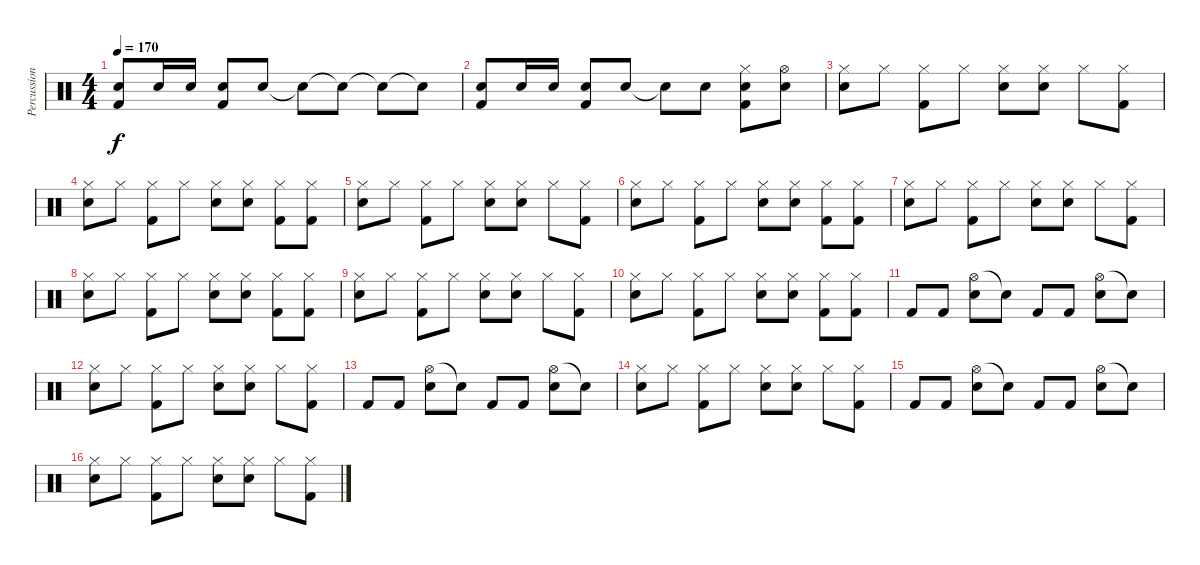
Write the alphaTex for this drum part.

\track ("Percussions" "Percussion") {instrument percussion}
\staff {score}
\articulation defaults
\ts (4 4)
\tempo 170
\clef neutral
\ks c
("Snare (hit) 2" "Kick (hit) 2").8{dy f} "Snare (hit) 2".16 "Snare (hit) 2".16 ("Snare (hit) 2" "Kick (hit) 2").8 "Snare (hit) 2".8 "Snare (hit) 2"{t}.8 "Snare (hit)"{t}.8 "Snare (hit)"{t}.8 "Snare (hit) 2"{t}.8 |
("Snare (hit) 2" "Kick (hit) 2").8 "Snare (hit) 2".16 "Snare (hit) 2".16 ("Snare (hit) 2" "Kick (hit) 2").8 "Snare (hit) 2".8 "Snare (hit) 2"{t}.8 "Snare (hit) 2".8 ("Hi-Hat (closed)" "Snare (hit) 2" "Kick (hit) 2").8 ("Hi-Hat (open)" "Snare (hit) 2").8 |
("Hi-Hat (closed)" "Snare (hit) 2").8 "Hi-Hat (closed)".8 ("Hi-Hat (closed)" "Kick (hit) 2").8 "Hi-Hat (closed)".8 ("Hi-Hat (closed)" "Snare (hit) 2").8 ("Hi-Hat (closed)" "Snare (hit) 2").8 "Hi-Hat (closed)".8 ("Hi-Hat (closed)" "Kick (hit) 2").8 |
("Hi-Hat (closed)" "Snare (hit) 2").8 "Hi-Hat (closed)".8 ("Hi-Hat (closed)" "Kick (hit) 2").8 "Hi-Hat (closed)".8 ("Hi-Hat (closed)" "Snare (hit) 2").8 ("Hi-Hat (closed)" "Snare (hit) 2").8 ("Hi-Hat (closed)" "Kick (hit) 2").8 ("Hi-Hat (closed)" "Kick (hit) 2").8 |
("Hi-Hat (closed)" "Snare (hit) 2").8 "Hi-Hat (closed)".8 ("Hi-Hat (closed)" "Kick (hit) 2").8 "Hi-Hat (closed)".8 ("Hi-Hat (closed)" "Snare (hit) 2").8 ("Hi-Hat (closed)" "Snare (hit) 2").8 "Hi-Hat (closed)".8 ("Hi-Hat (closed)" "Kick (hit) 2").8 |
("Hi-Hat (closed)" "Snare (hit) 2").8 "Hi-Hat (closed)".8 ("Hi-Hat (closed)" "Kick (hit) 2").8 "Hi-Hat (closed)".8 ("Hi-Hat (closed)" "Snare (hit) 2").8 ("Hi-Hat (closed)" "Snare (hit) 2").8 ("Hi-Hat (closed)" "Kick (hit) 2").8 ("Hi-Hat (closed)" "Kick (hit) 2").8 |
("Hi-Hat (closed)" "Snare (hit) 2").8 "Hi-Hat (closed)".8 ("Hi-Hat (closed)" "Kick (hit) 2").8 "Hi-Hat (closed)".8 ("Hi-Hat (closed)" "Snare (hit) 2").8 ("Hi-Hat (closed)" "Snare (hit) 2").8 "Hi-Hat (closed)".8 ("Hi-Hat (closed)" "Kick (hit) 2").8 |
("Hi-Hat (closed)" "Snare (hit) 2").8 "Hi-Hat (closed)".8 ("Hi-Hat (closed)" "Kick (hit) 2").8 "Hi-Hat (closed)".8 ("Hi-Hat (closed)" "Snare (hit) 2").8 ("Hi-Hat (closed)" "Snare (hit) 2").8 ("Hi-Hat (closed)" "Kick (hit) 2").8 ("Hi-Hat (closed)" "Kick (hit) 2").8 |
("Hi-Hat (closed)" "Snare (hit) 2").8 "Hi-Hat (closed)".8 ("Hi-Hat (closed)" "Kick (hit) 2").8 "Hi-Hat (closed)".8 ("Hi-Hat (closed)" "Snare (hit) 2").8 ("Hi-Hat (closed)" "Snare (hit) 2").8 "Hi-Hat (closed)".8 ("Hi-Hat (closed)" "Kick (hit) 2").8 |
("Hi-Hat (closed)" "Snare (hit) 2").8 "Hi-Hat (closed)".8 ("Hi-Hat (closed)" "Kick (hit) 2").8 "Hi-Hat (closed)".8 ("Hi-Hat (closed)" "Snare (hit) 2").8 ("Hi-Hat (closed)" "Snare (hit) 2").8 ("Hi-Hat (closed)" "Kick (hit) 2").8 ("Hi-Hat (closed)" "Kick (hit) 2").8 |
"Kick (hit) 2".8 "Kick (hit) 2".8 ("Hi-Hat (open)" "Snare (hit) 2").8 "Snare (hit)"{t}.8 "Kick (hit) 2".8 "Kick (hit) 2".8 ("Hi-Hat (open)" "Snare (hit) 2").8 "Snare (hit)"{t}.8 |
("Hi-Hat (closed)" "Snare (hit) 2").8 "Hi-Hat (closed)".8 ("Hi-Hat (closed)" "Kick (hit) 2").8 "Hi-Hat (closed)".8 ("Hi-Hat (closed)" "Snare (hit) 2").8 ("Hi-Hat (closed)" "Snare (hit) 2").8 "Hi-Hat (closed)".8 ("Hi-Hat (closed)" "Kick (hit) 2").8 |
"Kick (hit) 2".8 "Kick (hit) 2".8 ("Hi-Hat (open)" "Snare (hit) 2").8 "Snare (hit)"{t}.8 "Kick (hit) 2".8 "Kick (hit) 2".8 ("Hi-Hat (open)" "Snare (hit) 2").8 "Snare (hit)"{t}.8 |
("Hi-Hat (closed)" "Snare (hit) 2").8 "Hi-Hat (closed)".8 ("Hi-Hat (closed)" "Kick (hit) 2").8 "Hi-Hat (closed)".8 ("Hi-Hat (closed)" "Snare (hit) 2").8 ("Hi-Hat (closed)" "Snare (hit) 2").8 "Hi-Hat (closed)".8 ("Hi-Hat (closed)" "Kick (hit) 2").8 |
"Kick (hit) 2".8 "Kick (hit) 2".8 ("Hi-Hat (open)" "Snare (hit) 2").8 "Snare (hit)"{t}.8 "Kick (hit) 2".8 "Kick (hit) 2".8 ("Hi-Hat (open)" "Snare (hit) 2").8 "Snare (hit)"{t}.8 |
("Hi-Hat (closed)" "Snare (hit) 2").8 "Hi-Hat (closed)".8 ("Hi-Hat (closed)" "Kick (hit) 2").8 "Hi-Hat (closed)".8 ("Hi-Hat (closed)" "Snare (hit) 2").8 ("Hi-Hat (closed)" "Snare (hit) 2").8 "Hi-Hat (closed)".8 ("Hi-Hat (closed)" "Kick (hit) 2").8
